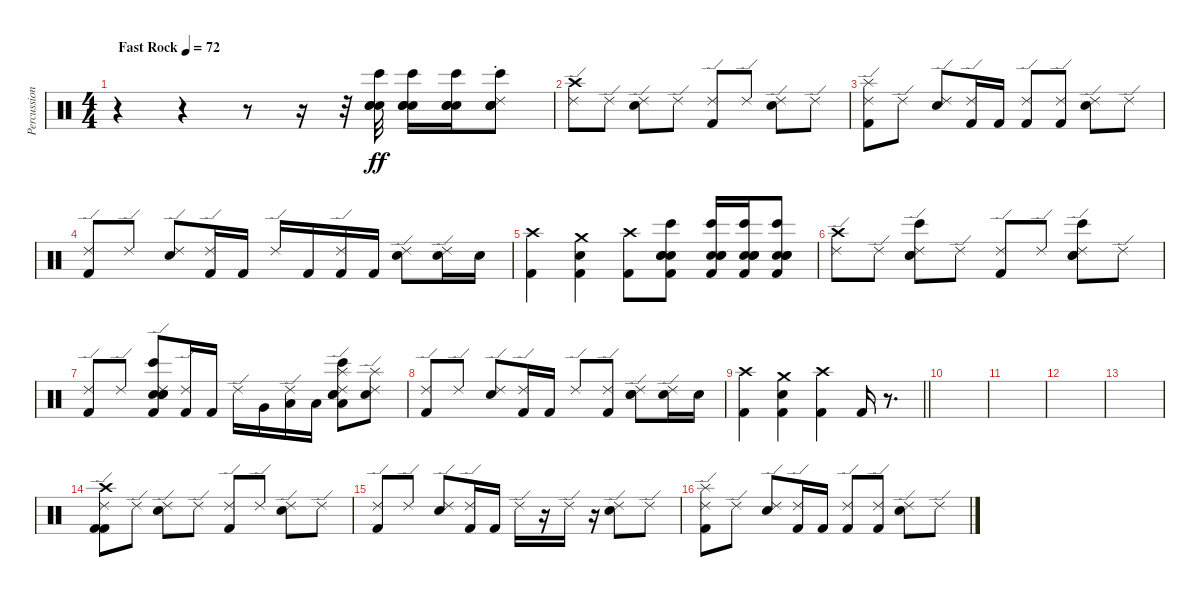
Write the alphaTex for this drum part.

\track ("Percussion" "Percussion") {instrument percussion}
\staff {score}
\articulation defaults
\ts (4 4)
\tempo (72 "Fast Rock")
\clef neutral
\ks c
r.4{dy ff} r.4 r.8 r.16 r.32 ("Snare (hit) 2" "Hand Clap (hit)" "Bongo High (hit)" "Electric Snare (hit)").32 ("Snare (hit) 2" "Hand Clap (hit)" "Bongo High (hit)" "Electric Snare (hit)").16 ("Snare (hit) 2" "Hand Clap (hit)" "Bongo High (hit)" "Electric Snare (hit)").16 ("Hand Clap (hit)" "Snare (hit) 2" "Bongo High (hit)" "Electric Snare (hit)" "Ride (choke) 2").8 |
("Crash high (hit)" "Ride (edge) 2").8 "Ride (edge) 2".8 ("Ride (edge) 2" "Snare (hit) 2").8 "Ride (edge) 2".8 ("Ride (edge) 2" "Kick (hit) 2").8 "Ride (edge) 2".8 ("Ride (edge) 2" "Snare (hit) 2").8 "Ride (edge) 2".8 |
("Splash (hit)" "Kick (hit) 2" "Ride (edge) 2").8 "Ride (edge) 2".8 ("Ride (edge) 2" "Snare (hit) 2").8 ("Ride (edge) 2" "Kick (hit) 2").16 "Kick (hit) 2".16 ("Ride (edge) 2" "Kick (hit) 2").8 ("Ride (edge) 2" "Kick (hit) 2").8 ("Ride (edge) 2" "Snare (hit) 2").8 "Ride (edge) 2".8 |
("Ride (edge) 2" "Kick (hit) 2").8 "Ride (edge) 2".8 ("Ride (edge) 2" "Snare (hit) 2").8 ("Ride (edge) 2" "Kick (hit) 2").16 "Kick (hit) 2".16 "Ride (edge) 2".16 "Kick (hit) 2".16 ("Ride (edge) 2" "Kick (hit) 2").16 "Kick (hit) 2".16 ("Snare (hit) 2" "Ride (edge) 2").8 ("Ride (edge) 2" "Snare (hit) 2").16 "Snare (hit) 2".16 |
("Crash high (hit)" "Kick (hit) 2").4 ("Snare (hit) 2" "Crash medium (hit)" "Kick (hit) 2").4 ("Crash high (hit)" "Kick (hit) 2").8 ("Kick (hit) 2" "Bongo High (hit)" "Snare (hit) 2" "Electric Snare (hit)" "Hand Clap (hit)").8 ("Kick (hit) 2" "Bongo High (hit)" "Snare (hit) 2" "Electric Snare (hit)" "Hand Clap (hit)").16 ("Kick (hit) 2" "Bongo High (hit)" "Snare (hit) 2" "Electric Snare (hit)" "Hand Clap (hit)").16 ("Kick (hit) 2" "Bongo High (hit)" "Snare (hit) 2" "Electric Snare (hit)" "Hand Clap (hit)").8 |
("Crash high (hit)" "Ride (edge) 2").8 "Ride (edge) 2".8 ("Ride (edge) 2" "Snare (hit) 2" "Bongo High (hit)" "Hand Clap (hit)").8 "Ride (edge) 2".8 ("Ride (edge) 2" "Kick (hit) 2").8 "Ride (edge) 2".8 ("Ride (edge) 2" "Snare (hit) 2" "Bongo High (hit)" "Hand Clap (hit)").8 "Ride (edge) 2".8 |
("Ride (edge) 2" "Kick (hit) 2").8 "Ride (edge) 2".8 ("Hand Clap (hit)" "Bongo High (hit)" "Ride (edge) 2" "Snare (hit) 2" "Electric Snare (hit)" "Kick (hit) 2").8 ("Ride (edge) 2" "Kick (hit) 2").16 "Kick (hit) 2".16 "Ride (edge) 2".16 "Very Low Tom (hit)".16 ("Ride (edge) 2" "Low Floor Tom (hit)").16 "Low Floor Tom (hit)".16 ("Hand Clap (hit)" "Bongo High (hit)" "Snare (hit) 2" "Ride (edge) 2" "Splash (hit)" "Low Floor Tom (hit)").8 ("Ride (edge) 2" "Snare (hit) 2" "Splash (hit)").8 |
("Ride (edge) 2" "Kick (hit) 2").8 "Ride (edge) 2".8 ("Ride (edge) 2" "Snare (hit) 2").8 ("Ride (edge) 2" "Kick (hit) 2").16 "Kick (hit) 2".16 "Ride (edge) 2".8 ("Ride (edge) 2" "Kick (hit) 2").8 ("Electric Snare (hit)" "Snare (hit) 2" "Ride (edge) 2").8 ("Ride (edge) 2" "Snare (hit) 2").16 "Snare (hit) 2".16 |
\barLineRight lightlight
("Crash high (hit)" "Kick (hit) 2").4 ("Snare (hit) 2" "Crash medium (hit)" "Kick (hit) 2").4 ("Crash high (hit)" "Kick (hit) 2").4 "Kick (hit) 2".16 r.8{d} |
|
|
|
|
("Crash high (hit)" "Ride (edge) 2" "Kick (hit) 2" "Kick (hit) 2").8 "Ride (edge) 2".8 ("Ride (edge) 2" "Snare (hit) 2").8 "Ride (edge) 2".8 ("Ride (edge) 2" "Kick (hit) 2").8 "Ride (edge) 2".8 ("Ride (edge) 2" "Snare (hit) 2").8 "Ride (edge) 2".8 |
("Ride (edge) 2" "Kick (hit) 2").8 "Ride (edge) 2".8 ("Ride (edge) 2" "Snare (hit) 2").8 ("Ride (edge) 2" "Kick (hit) 2").16 "Kick (hit) 2".16 "Ride (edge) 2".16 r.16 "Ride (edge) 2".16 r.16 ("Snare (hit) 2" "Ride (edge) 2").8 "Ride (edge) 2".8 |
("Splash (hit)" "Kick (hit) 2" "Ride (edge) 2").8 "Ride (edge) 2".8 ("Ride (edge) 2" "Snare (hit) 2").8 ("Ride (edge) 2" "Kick (hit) 2").16 "Kick (hit) 2".16 ("Ride (edge) 2" "Kick (hit) 2").8 ("Ride (edge) 2" "Kick (hit) 2").8 ("Ride (edge) 2" "Snare (hit) 2").8 "Ride (edge) 2".8
